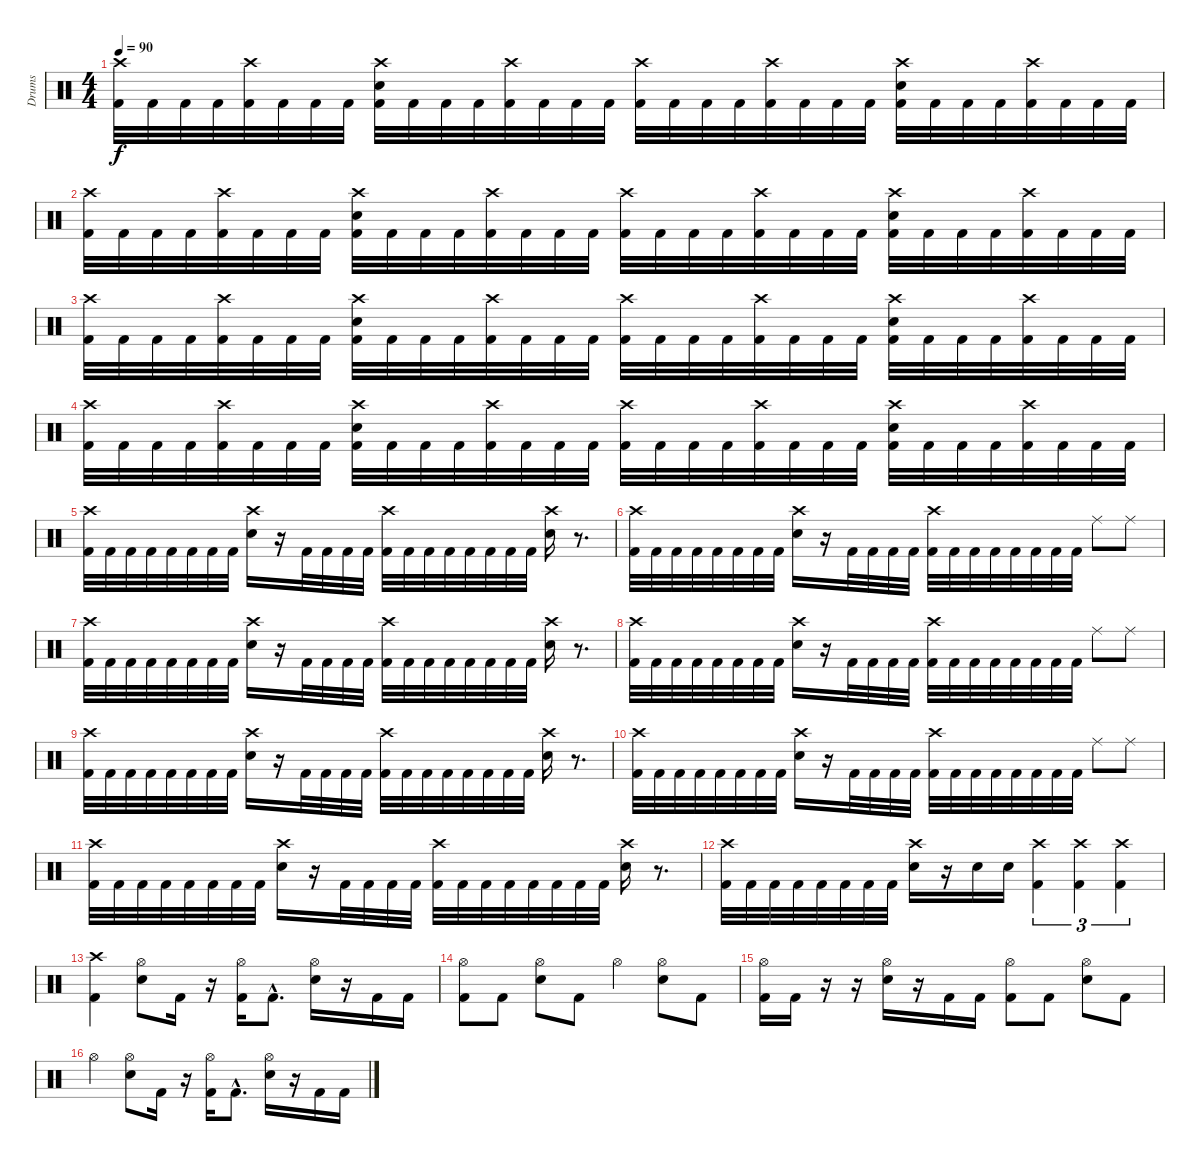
\track ("Drums" "Drums") {instrument percussion}
\staff {score}
\articulation defaults
\ts (4 4)
\tempo 90
\clef neutral
\ks c
("Crash high (hit)" "Kick (hit) 2").32{dy f} "Kick (hit) 2".32 "Kick (hit) 2".32 "Kick (hit) 2".32 ("Crash high (hit)" "Kick (hit) 2").32 "Kick (hit) 2".32 "Kick (hit) 2".32 "Kick (hit) 2".32 ("Crash high (hit)" "Electric Snare (hit)" "Kick (hit) 2").32 "Kick (hit) 2".32 "Kick (hit) 2".32 "Kick (hit) 2".32 ("Crash high (hit)" "Kick (hit) 2").32 "Kick (hit) 2".32 "Kick (hit) 2".32 "Kick (hit) 2".32 ("Crash high (hit)" "Kick (hit) 2").32 "Kick (hit) 2".32 "Kick (hit) 2".32 "Kick (hit) 2".32 ("Crash high (hit)" "Kick (hit) 2").32 "Kick (hit) 2".32 "Kick (hit) 2".32 "Kick (hit) 2".32 ("Crash high (hit)" "Electric Snare (hit)" "Kick (hit) 2").32 "Kick (hit) 2".32 "Kick (hit) 2".32 "Kick (hit) 2".32 ("Crash high (hit)" "Kick (hit) 2").32 "Kick (hit) 2".32 "Kick (hit) 2".32 "Kick (hit) 2".32 |
("Crash high (hit)" "Kick (hit) 2").32 "Kick (hit) 2".32 "Kick (hit) 2".32 "Kick (hit) 2".32 ("Crash high (hit)" "Kick (hit) 2").32 "Kick (hit) 2".32 "Kick (hit) 2".32 "Kick (hit) 2".32 ("Crash high (hit)" "Electric Snare (hit)" "Kick (hit) 2").32 "Kick (hit) 2".32 "Kick (hit) 2".32 "Kick (hit) 2".32 ("Crash high (hit)" "Kick (hit) 2").32 "Kick (hit) 2".32 "Kick (hit) 2".32 "Kick (hit) 2".32 ("Crash high (hit)" "Kick (hit) 2").32 "Kick (hit) 2".32 "Kick (hit) 2".32 "Kick (hit) 2".32 ("Crash high (hit)" "Kick (hit) 2").32 "Kick (hit) 2".32 "Kick (hit) 2".32 "Kick (hit) 2".32 ("Crash high (hit)" "Electric Snare (hit)" "Kick (hit) 2").32 "Kick (hit) 2".32 "Kick (hit) 2".32 "Kick (hit) 2".32 ("Crash high (hit)" "Kick (hit) 2").32 "Kick (hit) 2".32 "Kick (hit) 2".32 "Kick (hit) 2".32 |
("Crash high (hit)" "Kick (hit) 2").32 "Kick (hit) 2".32 "Kick (hit) 2".32 "Kick (hit) 2".32 ("Crash high (hit)" "Kick (hit) 2").32 "Kick (hit) 2".32 "Kick (hit) 2".32 "Kick (hit) 2".32 ("Crash high (hit)" "Electric Snare (hit)" "Kick (hit) 2").32 "Kick (hit) 2".32 "Kick (hit) 2".32 "Kick (hit) 2".32 ("Crash high (hit)" "Kick (hit) 2").32 "Kick (hit) 2".32 "Kick (hit) 2".32 "Kick (hit) 2".32 ("Crash high (hit)" "Kick (hit) 2").32 "Kick (hit) 2".32 "Kick (hit) 2".32 "Kick (hit) 2".32 ("Crash high (hit)" "Kick (hit) 2").32 "Kick (hit) 2".32 "Kick (hit) 2".32 "Kick (hit) 2".32 ("Crash high (hit)" "Electric Snare (hit)" "Kick (hit) 2").32 "Kick (hit) 2".32 "Kick (hit) 2".32 "Kick (hit) 2".32 ("Crash high (hit)" "Kick (hit) 2").32 "Kick (hit) 2".32 "Kick (hit) 2".32 "Kick (hit) 2".32 |
("Crash high (hit)" "Kick (hit) 2").32 "Kick (hit) 2".32 "Kick (hit) 2".32 "Kick (hit) 2".32 ("Crash high (hit)" "Kick (hit) 2").32 "Kick (hit) 2".32 "Kick (hit) 2".32 "Kick (hit) 2".32 ("Crash high (hit)" "Electric Snare (hit)" "Kick (hit) 2").32 "Kick (hit) 2".32 "Kick (hit) 2".32 "Kick (hit) 2".32 ("Crash high (hit)" "Kick (hit) 2").32 "Kick (hit) 2".32 "Kick (hit) 2".32 "Kick (hit) 2".32 ("Crash high (hit)" "Kick (hit) 2").32 "Kick (hit) 2".32 "Kick (hit) 2".32 "Kick (hit) 2".32 ("Crash high (hit)" "Kick (hit) 2").32 "Kick (hit) 2".32 "Kick (hit) 2".32 "Kick (hit) 2".32 ("Crash high (hit)" "Electric Snare (hit)" "Kick (hit) 2").32 "Kick (hit) 2".32 "Kick (hit) 2".32 "Kick (hit) 2".32 ("Crash high (hit)" "Kick (hit) 2").32 "Kick (hit) 2".32 "Kick (hit) 2".32 "Kick (hit) 2".32 |
("Crash high (hit)" "Kick (hit) 2").32 "Kick (hit) 2".32 "Kick (hit) 2".32 "Kick (hit) 2".32 "Kick (hit) 2".32 "Kick (hit) 2".32 "Kick (hit) 2".32 "Kick (hit) 2".32 ("Crash high (hit)" "Electric Snare (hit)").16 r.16 "Kick (hit) 2".32 "Kick (hit) 2".32 "Kick (hit) 2".32 "Kick (hit) 2".32 ("Crash high (hit)" "Kick (hit) 2").32 "Kick (hit) 2".32 "Kick (hit) 2".32 "Kick (hit) 2".32 "Kick (hit) 2".32 "Kick (hit) 2".32 "Kick (hit) 2".32 "Kick (hit) 2".32 ("Crash high (hit)" "Electric Snare (hit)").16 r.8{d} |
("Crash high (hit)" "Kick (hit) 2").32 "Kick (hit) 2".32 "Kick (hit) 2".32 "Kick (hit) 2".32 "Kick (hit) 2".32 "Kick (hit) 2".32 "Kick (hit) 2".32 "Kick (hit) 2".32 ("Crash high (hit)" "Electric Snare (hit)").16 r.16 "Kick (hit) 2".32 "Kick (hit) 2".32 "Kick (hit) 2".32 "Kick (hit) 2".32 ("Crash high (hit)" "Kick (hit) 2").32 "Kick (hit) 2".32 "Kick (hit) 2".32 "Kick (hit) 2".32 "Kick (hit) 2".32 "Kick (hit) 2".32 "Kick (hit) 2".32 "Kick (hit) 2".32 "Ride (middle)".8 "Ride (middle)".8 |
("Crash high (hit)" "Kick (hit) 2").32 "Kick (hit) 2".32 "Kick (hit) 2".32 "Kick (hit) 2".32 "Kick (hit) 2".32 "Kick (hit) 2".32 "Kick (hit) 2".32 "Kick (hit) 2".32 ("Crash high (hit)" "Electric Snare (hit)").16 r.16 "Kick (hit) 2".32 "Kick (hit) 2".32 "Kick (hit) 2".32 "Kick (hit) 2".32 ("Crash high (hit)" "Kick (hit) 2").32 "Kick (hit) 2".32 "Kick (hit) 2".32 "Kick (hit) 2".32 "Kick (hit) 2".32 "Kick (hit) 2".32 "Kick (hit) 2".32 "Kick (hit) 2".32 ("Crash high (hit)" "Electric Snare (hit)").16 r.8{d} |
("Crash high (hit)" "Kick (hit) 2").32 "Kick (hit) 2".32 "Kick (hit) 2".32 "Kick (hit) 2".32 "Kick (hit) 2".32 "Kick (hit) 2".32 "Kick (hit) 2".32 "Kick (hit) 2".32 ("Crash high (hit)" "Electric Snare (hit)").16 r.16 "Kick (hit) 2".32 "Kick (hit) 2".32 "Kick (hit) 2".32 "Kick (hit) 2".32 ("Crash high (hit)" "Kick (hit) 2").32 "Kick (hit) 2".32 "Kick (hit) 2".32 "Kick (hit) 2".32 "Kick (hit) 2".32 "Kick (hit) 2".32 "Kick (hit) 2".32 "Kick (hit) 2".32 "Ride (middle)".8 "Ride (middle)".8 |
("Crash high (hit)" "Kick (hit) 2").32 "Kick (hit) 2".32 "Kick (hit) 2".32 "Kick (hit) 2".32 "Kick (hit) 2".32 "Kick (hit) 2".32 "Kick (hit) 2".32 "Kick (hit) 2".32 ("Crash high (hit)" "Electric Snare (hit)").16 r.16 "Kick (hit) 2".32 "Kick (hit) 2".32 "Kick (hit) 2".32 "Kick (hit) 2".32 ("Crash high (hit)" "Kick (hit) 2").32 "Kick (hit) 2".32 "Kick (hit) 2".32 "Kick (hit) 2".32 "Kick (hit) 2".32 "Kick (hit) 2".32 "Kick (hit) 2".32 "Kick (hit) 2".32 ("Crash high (hit)" "Electric Snare (hit)").16 r.8{d} |
("Crash high (hit)" "Kick (hit) 2").32 "Kick (hit) 2".32 "Kick (hit) 2".32 "Kick (hit) 2".32 "Kick (hit) 2".32 "Kick (hit) 2".32 "Kick (hit) 2".32 "Kick (hit) 2".32 ("Crash high (hit)" "Electric Snare (hit)").16 r.16 "Kick (hit) 2".32 "Kick (hit) 2".32 "Kick (hit) 2".32 "Kick (hit) 2".32 ("Crash high (hit)" "Kick (hit) 2").32 "Kick (hit) 2".32 "Kick (hit) 2".32 "Kick (hit) 2".32 "Kick (hit) 2".32 "Kick (hit) 2".32 "Kick (hit) 2".32 "Kick (hit) 2".32 "Ride (middle)".8 "Ride (middle)".8 |
("Crash high (hit)" "Kick (hit) 2").32 "Kick (hit) 2".32 "Kick (hit) 2".32 "Kick (hit) 2".32 "Kick (hit) 2".32 "Kick (hit) 2".32 "Kick (hit) 2".32 "Kick (hit) 2".32 ("Crash high (hit)" "Electric Snare (hit)").16 r.16 "Kick (hit) 2".32 "Kick (hit) 2".32 "Kick (hit) 2".32 "Kick (hit) 2".32 ("Crash high (hit)" "Kick (hit) 2").32 "Kick (hit) 2".32 "Kick (hit) 2".32 "Kick (hit) 2".32 "Kick (hit) 2".32 "Kick (hit) 2".32 "Kick (hit) 2".32 "Kick (hit) 2".32 ("Crash high (hit)" "Electric Snare (hit)").16 r.8{d} |
("Crash high (hit)" "Kick (hit) 2").32 "Kick (hit) 2".32 "Kick (hit) 2".32 "Kick (hit) 2".32 "Kick (hit) 2".32 "Kick (hit) 2".32 "Kick (hit) 2".32 "Kick (hit) 2".32 ("Crash high (hit)" "Electric Snare (hit)").16 r.16 "Electric Snare (hit)".16 "Electric Snare (hit)".16 ("Crash high (hit)" "Kick (hit) 2").4{tu (3 2)} ("Crash high (hit)" "Kick (hit) 2").4{tu (3 2)} ("Crash high (hit)" "Kick (hit) 2").4{tu (3 2)} |
("Crash high (hit)" "Kick (hit) 2").4 ("Hi-Hat (open)" "Electric Snare (hit)").8 "Kick (hit) 2".16 r.16 ("Hi-Hat (open)" "Kick (hit) 2").16 "Kick (hit) 2"{hac}.8{d} ("Hi-Hat (open)" "Electric Snare (hit)").16 r.16 "Kick (hit) 2".16 "Kick (hit) 2".16 |
("Hi-Hat (open)" "Kick (hit) 2").8 "Kick (hit) 2".8 ("Hi-Hat (open)" "Electric Snare (hit)").8 "Kick (hit) 2".8 "Hi-Hat (open)".4 ("Hi-Hat (open)" "Electric Snare (hit)").8 "Kick (hit) 2".8 |
("Hi-Hat (open)" "Kick (hit) 2").16 "Kick (hit) 2".16 r.16 r.16 ("Hi-Hat (open)" "Electric Snare (hit)").16 r.16 "Kick (hit) 2".16 "Kick (hit) 2".16 ("Hi-Hat (open)" "Kick (hit) 2").8 "Kick (hit) 2".8 ("Hi-Hat (open)" "Electric Snare (hit)").8 "Kick (hit) 2".8 |
"Hi-Hat (open)".4 ("Hi-Hat (open)" "Electric Snare (hit)").8 "Kick (hit) 2".16 r.16 ("Hi-Hat (open)" "Kick (hit) 2").16 "Kick (hit) 2"{hac}.8{d} ("Hi-Hat (open)" "Electric Snare (hit)").16 r.16 "Kick (hit) 2".16 "Kick (hit) 2".16
